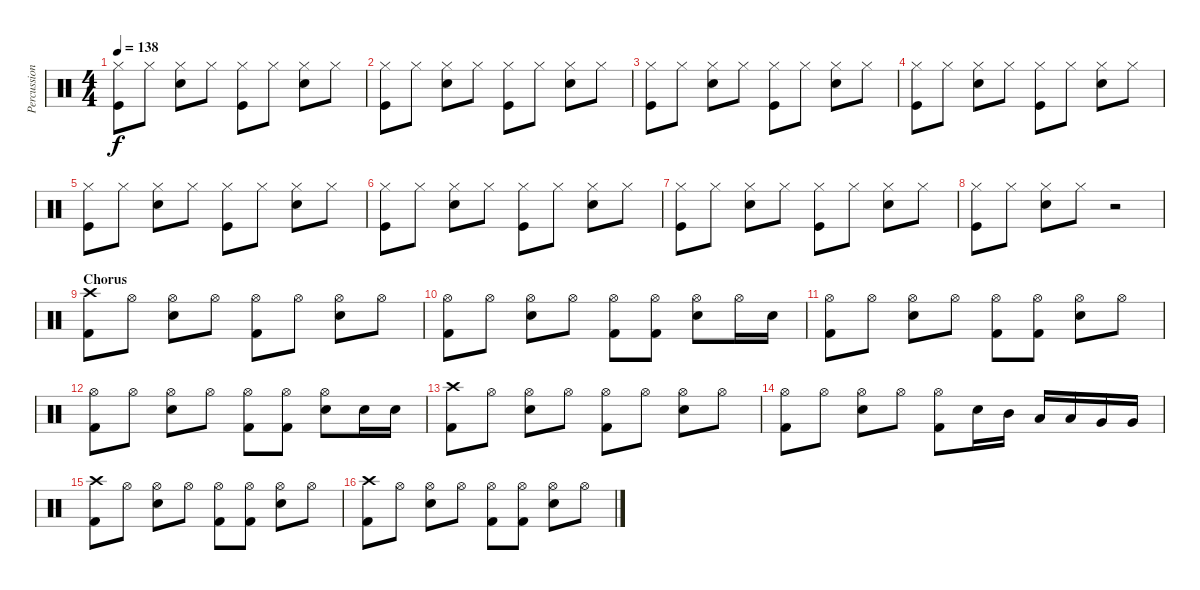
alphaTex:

\track ("Percussion" "Percussion") {instrument percussion}
\staff {score}
\articulation defaults
\ts (4 4)
\tempo 138
\clef neutral
\ks c
("Hi-Hat (closed)" "Kick (hit)").8{dy f} "Hi-Hat (closed)".8 ("Hi-Hat (closed)" "Electric Snare (hit)").8 "Hi-Hat (closed)".8 ("Hi-Hat (closed)" "Kick (hit)").8 "Hi-Hat (closed)".8 ("Hi-Hat (closed)" "Electric Snare (hit)").8 "Hi-Hat (closed)".8 |
("Hi-Hat (closed)" "Kick (hit)").8 "Hi-Hat (closed)".8 ("Hi-Hat (closed)" "Electric Snare (hit)").8 "Hi-Hat (closed)".8 ("Hi-Hat (closed)" "Kick (hit)").8 "Hi-Hat (closed)".8 ("Hi-Hat (closed)" "Electric Snare (hit)").8 "Hi-Hat (closed)".8 |
("Hi-Hat (closed)" "Kick (hit)").8 "Hi-Hat (closed)".8 ("Hi-Hat (closed)" "Electric Snare (hit)").8 "Hi-Hat (closed)".8 ("Hi-Hat (closed)" "Kick (hit)").8 "Hi-Hat (closed)".8 ("Hi-Hat (closed)" "Electric Snare (hit)").8 "Hi-Hat (closed)".8 |
("Hi-Hat (closed)" "Kick (hit)").8 "Hi-Hat (closed)".8 ("Hi-Hat (closed)" "Electric Snare (hit)").8 "Hi-Hat (closed)".8 ("Hi-Hat (closed)" "Kick (hit)").8 "Hi-Hat (closed)".8 ("Hi-Hat (closed)" "Electric Snare (hit)").8 "Hi-Hat (closed)".8 |
("Hi-Hat (closed)" "Kick (hit)").8 "Hi-Hat (closed)".8 ("Hi-Hat (closed)" "Electric Snare (hit)").8 "Hi-Hat (closed)".8 ("Hi-Hat (closed)" "Kick (hit)").8 "Hi-Hat (closed)".8 ("Hi-Hat (closed)" "Electric Snare (hit)").8 "Hi-Hat (closed)".8 |
("Hi-Hat (closed)" "Kick (hit)").8 "Hi-Hat (closed)".8 ("Hi-Hat (closed)" "Electric Snare (hit)").8 "Hi-Hat (closed)".8 ("Hi-Hat (closed)" "Kick (hit)").8 "Hi-Hat (closed)".8 ("Hi-Hat (closed)" "Electric Snare (hit)").8 "Hi-Hat (closed)".8 |
("Hi-Hat (closed)" "Kick (hit)").8 "Hi-Hat (closed)".8 ("Hi-Hat (closed)" "Electric Snare (hit)").8 "Hi-Hat (closed)".8 ("Hi-Hat (closed)" "Kick (hit)").8 "Hi-Hat (closed)".8 ("Hi-Hat (closed)" "Electric Snare (hit)").8 "Hi-Hat (closed)".8 |
("Hi-Hat (closed)" "Kick (hit)").8 "Hi-Hat (closed)".8 ("Hi-Hat (closed)" "Electric Snare (hit)").8 "Hi-Hat (closed)".8 r.2 |
\section ("" "Chorus")
("Crash high (hit)" "Kick (hit) 2").8 "Hi-Hat (open)".8 ("Hi-Hat (open)" "Electric Snare (hit)").8 "Hi-Hat (open)".8 ("Hi-Hat (open)" "Kick (hit) 2").8 "Hi-Hat (open)".8 ("Hi-Hat (open)" "Electric Snare (hit)").8 "Hi-Hat (open)".8 |
("Hi-Hat (open)" "Kick (hit) 2").8 "Hi-Hat (open)".8 ("Hi-Hat (open)" "Electric Snare (hit)").8 "Hi-Hat (open)".8 ("Hi-Hat (open)" "Kick (hit) 2").8 ("Hi-Hat (open)" "Kick (hit) 2").8 ("Hi-Hat (open)" "Electric Snare (hit)").8 "Hi-Hat (open)".16 "Electric Snare (hit)".16 |
("Hi-Hat (open)" "Kick (hit) 2").8 "Hi-Hat (open)".8 ("Hi-Hat (open)" "Electric Snare (hit)").8 "Hi-Hat (open)".8 ("Hi-Hat (open)" "Kick (hit) 2").8 ("Hi-Hat (open)" "Kick (hit) 2").8 ("Hi-Hat (open)" "Electric Snare (hit)").8 "Hi-Hat (open)".8 |
("Hi-Hat (open)" "Kick (hit) 2").8 "Hi-Hat (open)".8 ("Hi-Hat (open)" "Electric Snare (hit)").8 "Hi-Hat (open)".8 ("Hi-Hat (open)" "Kick (hit) 2").8 ("Hi-Hat (open)" "Kick (hit) 2").8 ("Hi-Hat (open)" "Electric Snare (hit)").8 "Electric Snare (hit)".16 "Electric Snare (hit)".16 |
("Crash high (hit)" "Kick (hit) 2").8 "Hi-Hat (open)".8 ("Hi-Hat (open)" "Electric Snare (hit)").8 "Hi-Hat (open)".8 ("Hi-Hat (open)" "Kick (hit) 2").8 "Hi-Hat (open)".8 ("Hi-Hat (open)" "Electric Snare (hit)").8 "Hi-Hat (open)".8 |
("Hi-Hat (open)" "Kick (hit) 2").8 "Hi-Hat (open)".8 ("Hi-Hat (open)" "Electric Snare (hit)").8 "Hi-Hat (open)".8 ("Hi-Hat (open)" "Kick (hit) 2").8 "Electric Snare (hit)".16 "Mid Tom (hit)".16 "Low Tom (hit)".16 "Low Tom (hit)".16 "Very Low Tom (hit)".16 "Very Low Tom (hit)".16 |
("Crash high (hit)" "Kick (hit) 2").8 "Hi-Hat (open)".8 ("Hi-Hat (open)" "Electric Snare (hit)").8 "Hi-Hat (open)".8 ("Hi-Hat (open)" "Kick (hit) 2").8 ("Hi-Hat (open)" "Kick (hit) 2").8 ("Hi-Hat (open)" "Electric Snare (hit)").8 "Hi-Hat (open)".8 |
("Crash high (hit)" "Kick (hit) 2").8 "Hi-Hat (open)".8 ("Hi-Hat (open)" "Electric Snare (hit)").8 "Hi-Hat (open)".8 ("Hi-Hat (open)" "Kick (hit) 2").8 ("Hi-Hat (open)" "Kick (hit) 2").8 ("Hi-Hat (open)" "Electric Snare (hit)").8 "Hi-Hat (open)".8
